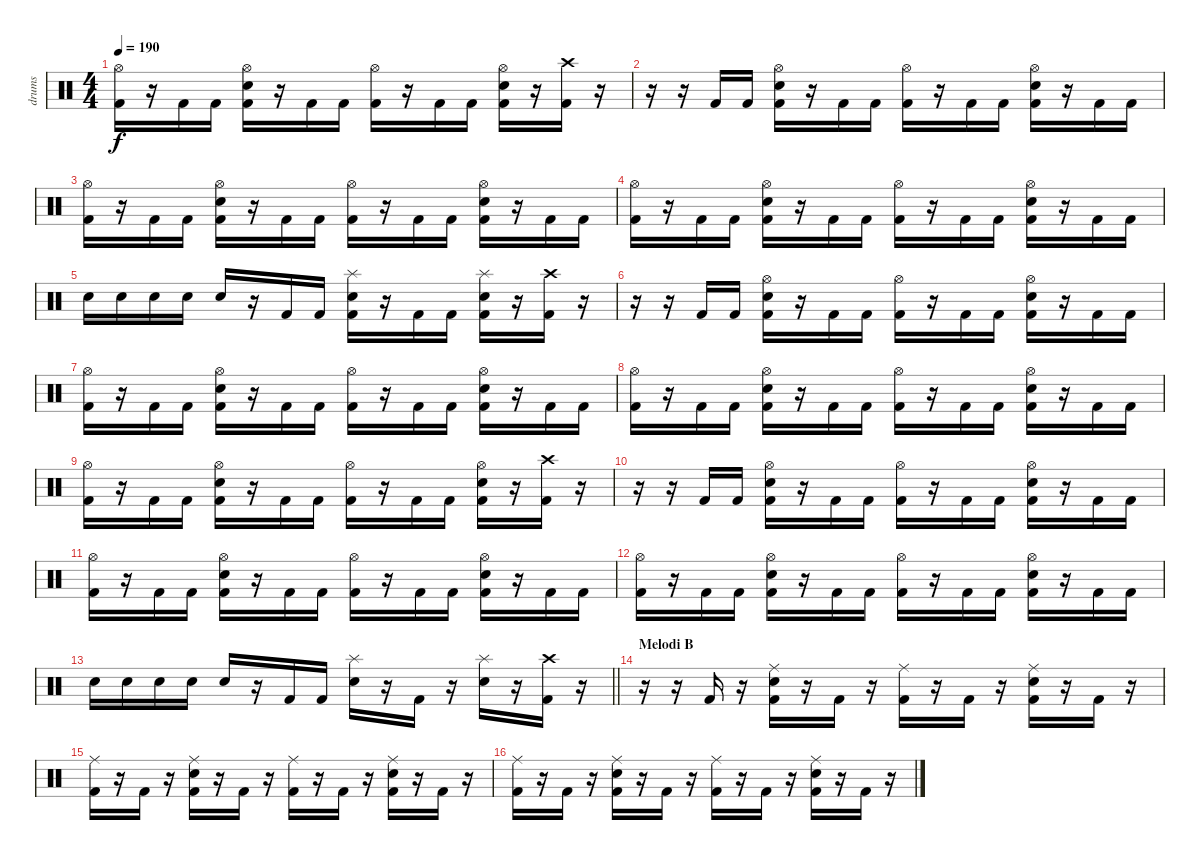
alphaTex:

\track ("drums" "drums") {instrument percussion}
\staff {score}
\articulation defaults
\ts (4 4)
\tempo 190
\clef neutral
\ks c
("Hi-Hat (open)" "Kick (hit) 2").16{dy f} r.16 "Kick (hit) 2".16 "Kick (hit) 2".16 ("Hi-Hat (open)" "Electric Snare (hit)" "Kick (hit) 2").16 r.16 "Kick (hit) 2".16 "Kick (hit) 2".16 ("Hi-Hat (open)" "Kick (hit) 2").16 r.16 "Kick (hit) 2".16 "Kick (hit) 2".16 ("Hi-Hat (open)" "Electric Snare (hit)" "Kick (hit) 2").16 r.16 ("Crash high (hit)" "Kick (hit) 2").16 r.16 |
r.16 r.16 "Kick (hit) 2".16 "Kick (hit) 2".16 ("Hi-Hat (open)" "Electric Snare (hit)" "Kick (hit) 2").16 r.16 "Kick (hit) 2".16 "Kick (hit) 2".16 ("Hi-Hat (open)" "Kick (hit) 2").16 r.16 "Kick (hit) 2".16 "Kick (hit) 2".16 ("Hi-Hat (open)" "Electric Snare (hit)" "Kick (hit) 2").16 r.16 "Kick (hit) 2".16 "Kick (hit) 2".16 |
("Hi-Hat (open)" "Kick (hit) 2").16 r.16 "Kick (hit) 2".16 "Kick (hit) 2".16 ("Hi-Hat (open)" "Electric Snare (hit)" "Kick (hit) 2").16 r.16 "Kick (hit) 2".16 "Kick (hit) 2".16 ("Hi-Hat (open)" "Kick (hit) 2").16 r.16 "Kick (hit) 2".16 "Kick (hit) 2".16 ("Hi-Hat (open)" "Electric Snare (hit)" "Kick (hit) 2").16 r.16 "Kick (hit) 2".16 "Kick (hit) 2".16 |
("Hi-Hat (open)" "Kick (hit) 2").16 r.16 "Kick (hit) 2".16 "Kick (hit) 2".16 ("Hi-Hat (open)" "Electric Snare (hit)" "Kick (hit) 2").16 r.16 "Kick (hit) 2".16 "Kick (hit) 2".16 ("Hi-Hat (open)" "Kick (hit) 2").16 r.16 "Kick (hit) 2".16 "Kick (hit) 2".16 ("Hi-Hat (open)" "Electric Snare (hit)" "Kick (hit) 2").16 r.16 "Kick (hit) 2".16 "Kick (hit) 2".16 |
"Electric Snare (hit)".16 "Electric Snare (hit)".16 "Electric Snare (hit)".16 "Electric Snare (hit)".16 "Electric Snare (hit)".16 r.16 "Kick (hit) 2".16 "Kick (hit) 2".16 ("Splash (hit)" "Electric Snare (hit)" "Kick (hit) 2").16 r.16 "Kick (hit) 2".16 "Kick (hit) 2".16 ("Splash (hit)" "Electric Snare (hit)" "Kick (hit) 2").16 r.16 ("Crash high (hit)" "Kick (hit) 2").16 r.16 |
r.16 r.16 "Kick (hit) 2".16 "Kick (hit) 2".16 ("Hi-Hat (open)" "Electric Snare (hit)" "Kick (hit) 2").16 r.16 "Kick (hit) 2".16 "Kick (hit) 2".16 ("Hi-Hat (open)" "Kick (hit) 2").16 r.16 "Kick (hit) 2".16 "Kick (hit) 2".16 ("Hi-Hat (open)" "Electric Snare (hit)" "Kick (hit) 2").16 r.16 "Kick (hit) 2".16 "Kick (hit) 2".16 |
("Hi-Hat (open)" "Kick (hit) 2").16 r.16 "Kick (hit) 2".16 "Kick (hit) 2".16 ("Hi-Hat (open)" "Electric Snare (hit)" "Kick (hit) 2").16 r.16 "Kick (hit) 2".16 "Kick (hit) 2".16 ("Hi-Hat (open)" "Kick (hit) 2").16 r.16 "Kick (hit) 2".16 "Kick (hit) 2".16 ("Hi-Hat (open)" "Electric Snare (hit)" "Kick (hit) 2").16 r.16 "Kick (hit) 2".16 "Kick (hit) 2".16 |
("Hi-Hat (open)" "Kick (hit) 2").16 r.16 "Kick (hit) 2".16 "Kick (hit) 2".16 ("Hi-Hat (open)" "Electric Snare (hit)" "Kick (hit) 2").16 r.16 "Kick (hit) 2".16 "Kick (hit) 2".16 ("Hi-Hat (open)" "Kick (hit) 2").16 r.16 "Kick (hit) 2".16 "Kick (hit) 2".16 ("Hi-Hat (open)" "Electric Snare (hit)" "Kick (hit) 2").16 r.16 "Kick (hit) 2".16 "Kick (hit) 2".16 |
("Hi-Hat (open)" "Kick (hit) 2").16 r.16 "Kick (hit) 2".16 "Kick (hit) 2".16 ("Hi-Hat (open)" "Electric Snare (hit)" "Kick (hit) 2").16 r.16 "Kick (hit) 2".16 "Kick (hit) 2".16 ("Hi-Hat (open)" "Kick (hit) 2").16 r.16 "Kick (hit) 2".16 "Kick (hit) 2".16 ("Hi-Hat (open)" "Electric Snare (hit)" "Kick (hit) 2").16 r.16 ("Crash high (hit)" "Kick (hit) 2").16 r.16 |
r.16 r.16 "Kick (hit) 2".16 "Kick (hit) 2".16 ("Hi-Hat (open)" "Electric Snare (hit)" "Kick (hit) 2").16 r.16 "Kick (hit) 2".16 "Kick (hit) 2".16 ("Hi-Hat (open)" "Kick (hit) 2").16 r.16 "Kick (hit) 2".16 "Kick (hit) 2".16 ("Hi-Hat (open)" "Electric Snare (hit)" "Kick (hit) 2").16 r.16 "Kick (hit) 2".16 "Kick (hit) 2".16 |
("Hi-Hat (open)" "Kick (hit) 2").16 r.16 "Kick (hit) 2".16 "Kick (hit) 2".16 ("Hi-Hat (open)" "Electric Snare (hit)" "Kick (hit) 2").16 r.16 "Kick (hit) 2".16 "Kick (hit) 2".16 ("Hi-Hat (open)" "Kick (hit) 2").16 r.16 "Kick (hit) 2".16 "Kick (hit) 2".16 ("Hi-Hat (open)" "Electric Snare (hit)" "Kick (hit) 2").16 r.16 "Kick (hit) 2".16 "Kick (hit) 2".16 |
("Hi-Hat (open)" "Kick (hit) 2").16 r.16 "Kick (hit) 2".16 "Kick (hit) 2".16 ("Hi-Hat (open)" "Electric Snare (hit)" "Kick (hit) 2").16 r.16 "Kick (hit) 2".16 "Kick (hit) 2".16 ("Hi-Hat (open)" "Kick (hit) 2").16 r.16 "Kick (hit) 2".16 "Kick (hit) 2".16 ("Hi-Hat (open)" "Electric Snare (hit)" "Kick (hit) 2").16 r.16 "Kick (hit) 2".16 "Kick (hit) 2".16 |
\barLineRight lightlight "Electric Snare (hit)".16 "Electric Snare (hit)".16 "Electric Snare (hit)".16 "Electric Snare (hit)".16 "Electric Snare (hit)".16
r.16 "Kick (hit) 2".16 "Kick (hit) 2".16 ("Splash (hit)" "Electric Snare (hit)").16 r.16 "Kick (hit) 2".16 r.16 ("Splash (hit)" "Electric Snare (hit)").16 r.16 ("Crash high (hit)" "Kick (hit) 2").16 r.16 |
\section ("" "Melodi B")
r.16 r.16 "Kick (hit) 2".16 r.16 ("Ride (middle)" "Electric Snare (hit)" "Kick (hit) 2").16 r.16 "Kick (hit) 2".16 r.16 ("Ride (middle)" "Kick (hit) 2").16 r.16 "Kick (hit) 2".16 r.16 ("Ride (middle)" "Electric Snare (hit)" "Kick (hit) 2").16 r.16 "Kick (hit) 2".16 r.16 |
("Ride (middle)" "Kick (hit) 2").16 r.16 "Kick (hit) 2".16 r.16 ("Ride (middle)" "Electric Snare (hit)" "Kick (hit) 2").16 r.16 "Kick (hit) 2".16 r.16 ("Ride (middle)" "Kick (hit) 2").16 r.16 "Kick (hit) 2".16 r.16 ("Ride (middle)" "Electric Snare (hit)" "Kick (hit) 2").16 r.16 "Kick (hit) 2".16 r.16 |
("Ride (middle)" "Kick (hit) 2").16 r.16 "Kick (hit) 2".16 r.16 ("Ride (middle)" "Electric Snare (hit)" "Kick (hit) 2").16 r.16 "Kick (hit) 2".16 r.16 ("Ride (middle)" "Kick (hit) 2").16 r.16 "Kick (hit) 2".16 r.16 ("Ride (middle)" "Electric Snare (hit)" "Kick (hit) 2").16 r.16 "Kick (hit) 2".16 r.16
